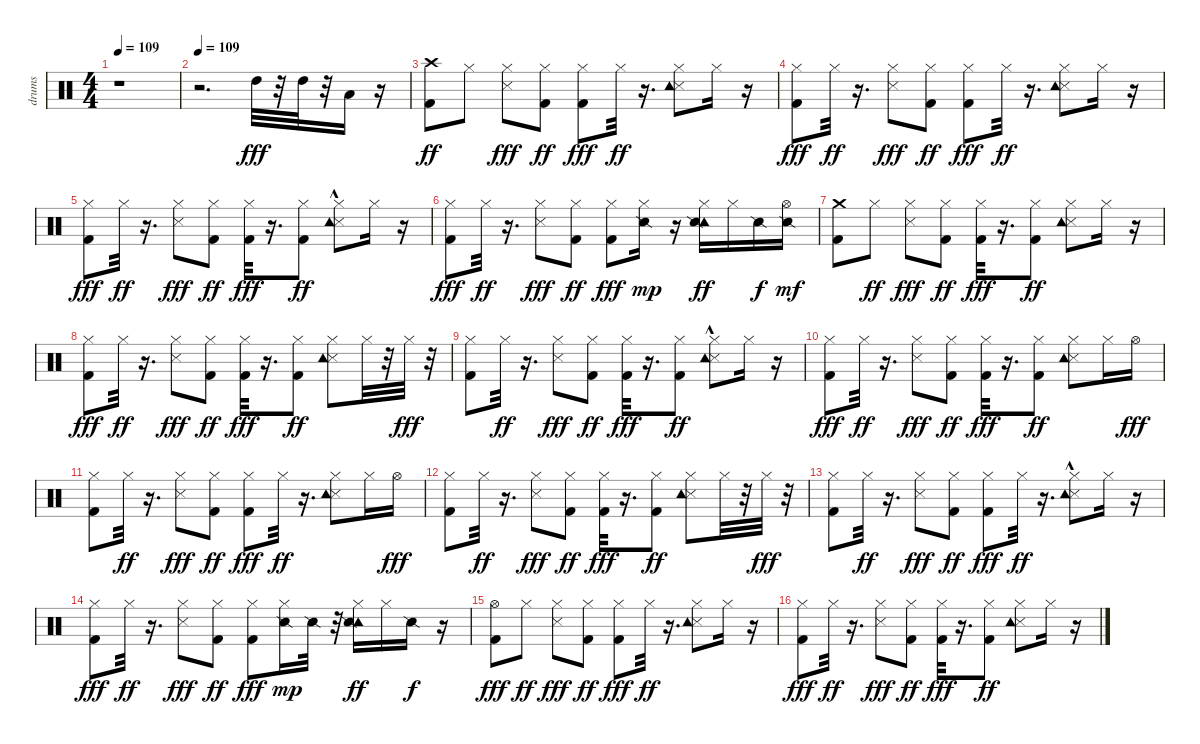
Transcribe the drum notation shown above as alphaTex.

\track ("drums" "drums") {instrument percussion}
\staff {score}
\articulation defaults
\ts (4 4)
\tempo 109
\clef neutral
\ks c
r.1{dy fff} |
\tempo 109
r.2{d} "High Tom (hit)".32 r.32 "High Tom (hit)".32 r.32 "Low Tom (hit)".16 r.16 |
("Kick (hit) 2" "Crash high (hit)").8{dy ff} "Hi-Hat (closed)".8 ("Snare (side stick) 3" "Hi-Hat (closed)").8{dy fff} ("Kick (hit) 2" "Hi-Hat (closed)").8{dy ff} ("Kick (hit) 2" "Hi-Hat (closed)").8{dy fff} "Hi-Hat (closed)".32{dy ff} r.16{d} ("Snare (side stick) 3" "Hi-Hat (closed)" "Tambourine (hit)").8 "Hi-Hat (closed)".16 r.16 |
("Kick (hit) 2" "Hi-Hat (closed)").8{dy fff} "Hi-Hat (closed)".32{dy ff} r.16{d} ("Snare (side stick) 3" "Hi-Hat (closed)").8{dy fff} ("Kick (hit) 2" "Hi-Hat (closed)").8{dy ff} ("Kick (hit) 2" "Hi-Hat (closed)").8{dy fff} "Hi-Hat (closed)".32{dy ff} r.16{d} ("Snare (side stick) 3" "Hi-Hat (closed)" "Tambourine (hit)").8 "Hi-Hat (closed)".16 r.16 |
("Kick (hit) 2" "Hi-Hat (closed)").8{dy fff} "Hi-Hat (closed)".32{dy ff} r.16{d} ("Snare (side stick) 3" "Hi-Hat (closed)").8{dy fff} ("Kick (hit) 2" "Hi-Hat (closed)").8{dy ff} ("Kick (hit) 2" "Hi-Hat (closed)").32{dy fff} r.16{d} ("Kick (hit) 2" "Hi-Hat (closed)").8{dy ff} ("Snare (side stick) 3" "Hi-Hat (closed)" "Tambourine (hit)"{hac}).8 "Hi-Hat (closed)".16 r.16 |
("Kick (hit) 2" "Hi-Hat (closed)").8{dy fff} "Hi-Hat (closed)".32{dy ff} r.16{d} ("Snare (side stick) 3" "Hi-Hat (closed)").8{dy fff} ("Kick (hit) 2" "Hi-Hat (closed)").8{dy ff} ("Kick (hit) 2" "Hi-Hat (closed)").8{dy fff} ("Hi-Hat (closed)" "Snare (side stick) 2").16{dy mp} r.16 ("Hi-Hat (closed)" "Tambourine (hit)" "Snare (side stick) 2").16{dy ff} "Hi-Hat (closed)".16 "Snare (side stick) 2".16{dy f} ("Hi-Hat (open)" "Snare (side stick) 2").16{dy mf} |
("Kick (hit) 2" "Crash medium (hit)").8 "Hi-Hat (closed)".8{dy ff} ("Snare (side stick) 3" "Hi-Hat (closed)").8{dy fff} ("Kick (hit) 2" "Hi-Hat (closed)").8{dy ff} ("Kick (hit) 2" "Hi-Hat (closed)").32{dy fff} r.16{d} ("Kick (hit) 2" "Hi-Hat (closed)").8{dy ff} ("Snare (side stick) 3" "Hi-Hat (closed)" "Tambourine (hit)").8 "Hi-Hat (closed)".16 r.16 |
("Kick (hit) 2" "Hi-Hat (closed)").8{dy fff} "Hi-Hat (closed)".32{dy ff} r.16{d} ("Snare (side stick) 3" "Hi-Hat (closed)").8{dy fff} ("Kick (hit) 2" "Hi-Hat (closed)").8{dy ff} ("Kick (hit) 2" "Hi-Hat (closed)").32{dy fff} r.16{d} ("Kick (hit) 2" "Hi-Hat (closed)").8{dy ff} ("Snare (side stick) 3" "Hi-Hat (closed)" "Tambourine (hit)").8 "Hi-Hat (closed)".32 r.32 "Hi-Hat (closed)".32{dy fff} r.32 |
("Kick (hit) 2" "Hi-Hat (closed)").8 "Hi-Hat (closed)".32{dy ff} r.16{d} ("Snare (side stick) 3" "Hi-Hat (closed)").8{dy fff} ("Kick (hit) 2" "Hi-Hat (closed)").8{dy ff} ("Kick (hit) 2" "Hi-Hat (closed)").32{dy fff} r.16{d} ("Kick (hit) 2" "Hi-Hat (closed)").8{dy ff} ("Snare (side stick) 3" "Hi-Hat (closed)" "Tambourine (hit)"{hac}).8 "Hi-Hat (closed)".16 r.16 |
("Kick (hit) 2" "Hi-Hat (closed)").8{dy fff} "Hi-Hat (closed)".32{dy ff} r.16{d} ("Snare (side stick) 3" "Hi-Hat (closed)").8{dy fff} ("Kick (hit) 2" "Hi-Hat (closed)").8{dy ff} ("Kick (hit) 2" "Hi-Hat (closed)").32{dy fff} r.16{d} ("Kick (hit) 2" "Hi-Hat (closed)").8{dy ff} ("Snare (side stick) 3" "Hi-Hat (closed)" "Tambourine (hit)").8 "Hi-Hat (closed)".16 "Hi-Hat (open)".16{dy fff} |
("Kick (hit) 2" "Hi-Hat (closed)").8 "Hi-Hat (closed)".32{dy ff} r.16{d} ("Snare (side stick) 3" "Hi-Hat (closed)").8{dy fff} ("Kick (hit) 2" "Hi-Hat (closed)").8{dy ff} ("Kick (hit) 2" "Hi-Hat (closed)").8{dy fff} "Hi-Hat (closed)".32{dy ff} r.16{d} ("Snare (side stick) 3" "Hi-Hat (closed)" "Tambourine (hit)").8 "Hi-Hat (closed)".16 "Hi-Hat (open)".16{dy fff} |
("Kick (hit) 2" "Hi-Hat (closed)").8 "Hi-Hat (closed)".32{dy ff} r.16{d} ("Snare (side stick) 3" "Hi-Hat (closed)").8{dy fff} ("Kick (hit) 2" "Hi-Hat (closed)").8{dy ff} ("Kick (hit) 2" "Hi-Hat (closed)").32{dy fff} r.16{d} ("Kick (hit) 2" "Hi-Hat (closed)").8{dy ff} ("Snare (side stick) 3" "Hi-Hat (closed)" "Tambourine (hit)").8 "Hi-Hat (closed)".32 r.32 "Hi-Hat (closed)".32{dy fff} r.32 |
("Kick (hit) 2" "Hi-Hat (closed)").8 "Hi-Hat (closed)".32{dy ff} r.16{d} ("Snare (side stick) 3" "Hi-Hat (closed)").8{dy fff} ("Kick (hit) 2" "Hi-Hat (closed)").8{dy ff} ("Kick (hit) 2" "Hi-Hat (closed)").8{dy fff} "Hi-Hat (closed)".32{dy ff} r.16{d} ("Snare (side stick) 3" "Hi-Hat (closed)" "Tambourine (hit)"{hac}).8 "Hi-Hat (closed)".16 r.16 |
("Kick (hit) 2" "Hi-Hat (closed)").8{dy fff} "Hi-Hat (closed)".32{dy ff} r.16{d} ("Snare (side stick) 3" "Hi-Hat (closed)").8{dy fff} ("Kick (hit) 2" "Hi-Hat (closed)").8{dy ff} ("Kick (hit) 2" "Hi-Hat (closed)").8{dy fff} ("Hi-Hat (closed)" "Snare (side stick) 2").16{dy mp} "Snare (side stick) 2".32 r.32 ("Hi-Hat (closed)" "Tambourine (hit)" "Snare (side stick) 2").16{dy ff} "Hi-Hat (closed)".16 "Snare (side stick) 2".16{dy f} r.16 |
("Kick (hit) 2" "Hi-Hat (open)").8{dy fff} "Hi-Hat (closed)".8{dy ff} ("Snare (side stick) 3" "Hi-Hat (closed)").8{dy fff} ("Kick (hit) 2" "Hi-Hat (closed)").8{dy ff} ("Kick (hit) 2" "Hi-Hat (closed)").8{dy fff} "Hi-Hat (closed)".32{dy ff} r.16{d} ("Snare (side stick) 3" "Hi-Hat (closed)" "Tambourine (hit)").8 "Hi-Hat (closed)".16 r.16 |
("Kick (hit) 2" "Hi-Hat (closed)").8{dy fff} "Hi-Hat (closed)".32{dy ff} r.16{d} ("Snare (side stick) 3" "Hi-Hat (closed)").8{dy fff} ("Kick (hit) 2" "Hi-Hat (closed)").8{dy ff} ("Kick (hit) 2" "Hi-Hat (closed)").32{dy fff} r.16{d} ("Kick (hit) 2" "Hi-Hat (closed)").8{dy ff} ("Snare (side stick) 3" "Hi-Hat (closed)" "Tambourine (hit)").8 "Hi-Hat (closed)".16 r.16
